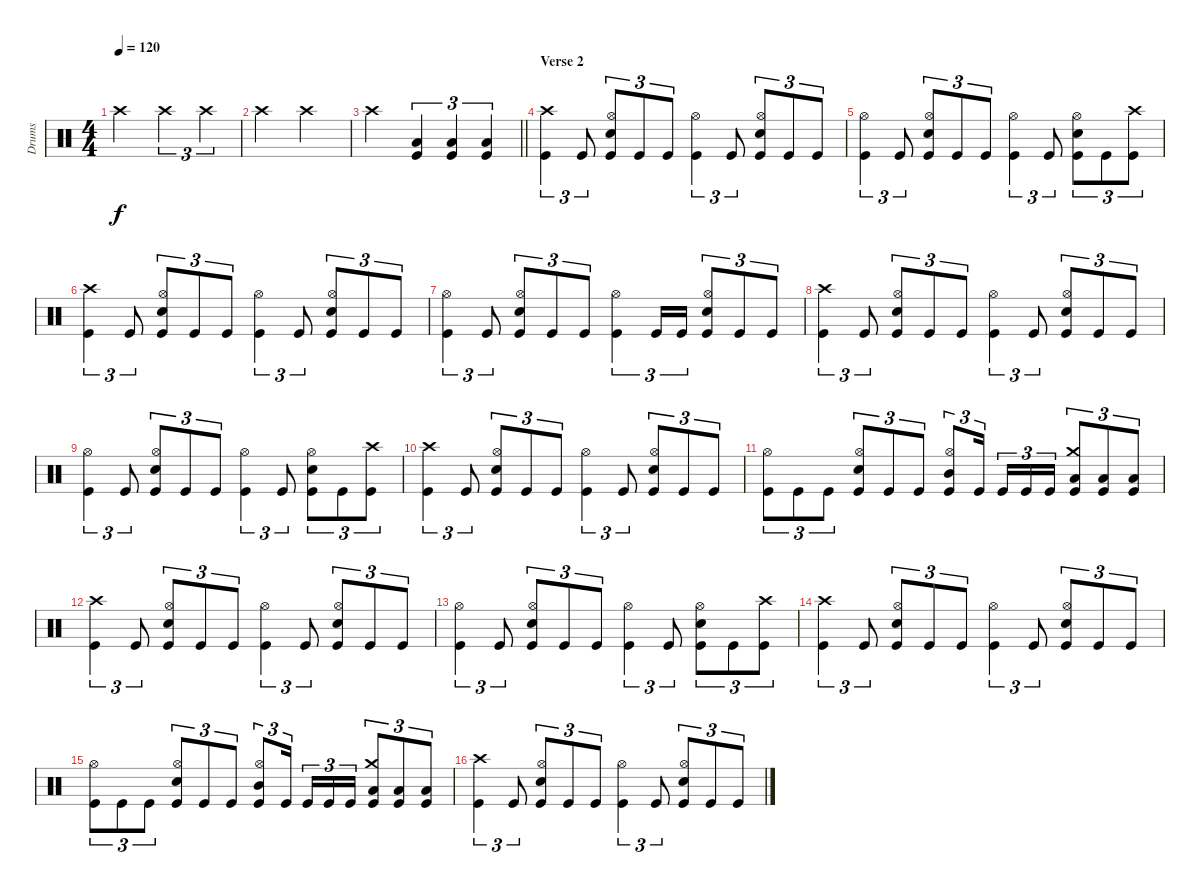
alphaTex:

\track ("Drums" "Drums") {instrument percussion}
\staff {score}
\articulation defaults
\ts (4 4)
\tempo 120
\clef neutral
\ks c "Crash high (hit)".2{dy f} "Crash high (hit)".2{tu (3 2)} "Crash high (hit)".4{tu (3 2)}
|
"Crash high (hit)".2 "Crash high (hit)".2 |
\barLineRight lightlight "Crash high (hit)".2
("Low Floor Tom (hit)" "Kick (hit)").4{tu (3 2)} ("Low Floor Tom (hit)" "Kick (hit)").4{tu (3 2)} ("Low Floor Tom (hit)" "Kick (hit)").4{tu (3 2)} |
\section ("" "Verse 2")
("Crash high (hit)" "Kick (hit)").4{tu (3 2)} "Kick (hit)".8{tu (3 2)} ("Hi-Hat (open)" "Snare (hit) 2" "Kick (hit)").8{tu (3 2)} "Kick (hit)".8{tu (3 2)} "Kick (hit)".8{tu (3 2)} ("Hi-Hat (open)" "Kick (hit)").4{tu (3 2)} "Kick (hit)".8{tu (3 2)} ("Hi-Hat (open)" "Snare (hit) 2" "Kick (hit)").8{tu (3 2)} "Kick (hit)".8{tu (3 2)} "Kick (hit)".8{tu (3 2)} |
("Hi-Hat (open)" "Kick (hit)").4{tu (3 2)} "Kick (hit)".8{tu (3 2)} ("Hi-Hat (open)" "Snare (hit) 2" "Kick (hit)").8{tu (3 2)} "Kick (hit)".8{tu (3 2)} "Kick (hit)".8{tu (3 2)} ("Hi-Hat (open)" "Kick (hit)").4{tu (3 2)} "Kick (hit)".8{tu (3 2)} ("Hi-Hat (open)" "Snare (hit) 2" "Kick (hit)").8{tu (3 2)} "Kick (hit)".8{tu (3 2)} ("Crash high (hit)" "Kick (hit)").8{tu (3 2)} |
("Crash high (hit)" "Kick (hit)").4{tu (3 2)} "Kick (hit)".8{tu (3 2)} ("Hi-Hat (open)" "Snare (hit) 2" "Kick (hit)").8{tu (3 2)} "Kick (hit)".8{tu (3 2)} "Kick (hit)".8{tu (3 2)} ("Hi-Hat (open)" "Kick (hit)").4{tu (3 2)} "Kick (hit)".8{tu (3 2)} ("Hi-Hat (open)" "Snare (hit) 2" "Kick (hit)").8{tu (3 2)} "Kick (hit)".8{tu (3 2)} "Kick (hit)".8{tu (3 2)} |
("Hi-Hat (open)" "Kick (hit)").4{tu (3 2)} "Kick (hit)".8{tu (3 2)} ("Hi-Hat (open)" "Snare (hit) 2" "Kick (hit)").8{tu (3 2)} "Kick (hit)".8{tu (3 2)} "Kick (hit)".8{tu (3 2)} ("Hi-Hat (open)" "Kick (hit)").4{tu (3 2)} "Kick (hit)".16{tu (3 2)} "Kick (hit)".16{tu (3 2)} ("Hi-Hat (open)" "Snare (hit) 2" "Kick (hit)").8{tu (3 2)} "Kick (hit)".8{tu (3 2)} "Kick (hit)".8{tu (3 2)} |
("Crash high (hit)" "Kick (hit)").4{tu (3 2)} "Kick (hit)".8{tu (3 2)} ("Hi-Hat (open)" "Snare (hit) 2" "Kick (hit)").8{tu (3 2)} "Kick (hit)".8{tu (3 2)} "Kick (hit)".8{tu (3 2)} ("Hi-Hat (open)" "Kick (hit)").4{tu (3 2)} "Kick (hit)".8{tu (3 2)} ("Hi-Hat (open)" "Snare (hit) 2" "Kick (hit)").8{tu (3 2)} "Kick (hit)".8{tu (3 2)} "Kick (hit)".8{tu (3 2)} |
("Hi-Hat (open)" "Kick (hit)").4{tu (3 2)} "Kick (hit)".8{tu (3 2)} ("Hi-Hat (open)" "Snare (hit) 2" "Kick (hit)").8{tu (3 2)} "Kick (hit)".8{tu (3 2)} "Kick (hit)".8{tu (3 2)} ("Hi-Hat (open)" "Kick (hit)").4{tu (3 2)} "Kick (hit)".8{tu (3 2)} ("Hi-Hat (open)" "Snare (hit) 2" "Kick (hit)").8{tu (3 2)} "Kick (hit)".8{tu (3 2)} ("Crash high (hit)" "Kick (hit)").8{tu (3 2)} |
("Crash high (hit)" "Kick (hit)").4{tu (3 2)} "Kick (hit)".8{tu (3 2)} ("Hi-Hat (open)" "Snare (hit) 2" "Kick (hit)").8{tu (3 2)} "Kick (hit)".8{tu (3 2)} "Kick (hit)".8{tu (3 2)} ("Hi-Hat (open)" "Kick (hit)").4{tu (3 2)} "Kick (hit)".8{tu (3 2)} ("Hi-Hat (open)" "Snare (hit) 2" "Kick (hit)").8{tu (3 2)} "Kick (hit)".8{tu (3 2)} "Kick (hit)".8{tu (3 2)} |
("Hi-Hat (open)" "Kick (hit)").8{tu (3 2)} "Kick (hit)".8{tu (3 2)} "Kick (hit)".8{tu (3 2)} ("Hi-Hat (open)" "Snare (hit) 2" "Kick (hit)").8{tu (3 2)} "Kick (hit)".8{tu (3 2)} "Kick (hit)".8{tu (3 2)} ("Hi-Hat (open)" "Mid Tom (hit)" "Kick (hit)").8{tu (3 2)} "Kick (hit)".16{tu (3 2)} "Kick (hit)".16{tu (3 2)} "Kick (hit)".16{tu (3 2)} "Kick (hit)".16{tu (3 2)} ("Crash medium (hit)" "Low Tom (hit)" "Kick (hit)").8{tu (3 2)} ("Low Tom (hit)" "Kick (hit)").8{tu (3 2)} ("Low Tom (hit)" "Kick (hit)").8{tu (3 2)} |
("Crash high (hit)" "Kick (hit)").4{tu (3 2)} "Kick (hit)".8{tu (3 2)} ("Hi-Hat (open)" "Snare (hit) 2" "Kick (hit)").8{tu (3 2)} "Kick (hit)".8{tu (3 2)} "Kick (hit)".8{tu (3 2)} ("Hi-Hat (open)" "Kick (hit)").4{tu (3 2)} "Kick (hit)".8{tu (3 2)} ("Hi-Hat (open)" "Snare (hit) 2" "Kick (hit)").8{tu (3 2)} "Kick (hit)".8{tu (3 2)} "Kick (hit)".8{tu (3 2)} |
("Hi-Hat (open)" "Kick (hit)").4{tu (3 2)} "Kick (hit)".8{tu (3 2)} ("Hi-Hat (open)" "Snare (hit) 2" "Kick (hit)").8{tu (3 2)} "Kick (hit)".8{tu (3 2)} "Kick (hit)".8{tu (3 2)} ("Hi-Hat (open)" "Kick (hit)").4{tu (3 2)} "Kick (hit)".8{tu (3 2)} ("Hi-Hat (open)" "Snare (hit) 2" "Kick (hit)").8{tu (3 2)} "Kick (hit)".8{tu (3 2)} ("Crash high (hit)" "Kick (hit)").8{tu (3 2)} |
("Crash high (hit)" "Kick (hit)").4{tu (3 2)} "Kick (hit)".8{tu (3 2)} ("Hi-Hat (open)" "Snare (hit) 2" "Kick (hit)").8{tu (3 2)} "Kick (hit)".8{tu (3 2)} "Kick (hit)".8{tu (3 2)} ("Hi-Hat (open)" "Kick (hit)").4{tu (3 2)} "Kick (hit)".8{tu (3 2)} ("Hi-Hat (open)" "Snare (hit) 2" "Kick (hit)").8{tu (3 2)} "Kick (hit)".8{tu (3 2)} "Kick (hit)".8{tu (3 2)} |
("Hi-Hat (open)" "Kick (hit)").8{tu (3 2)} "Kick (hit)".8{tu (3 2)} "Kick (hit)".8{tu (3 2)} ("Hi-Hat (open)" "Snare (hit) 2" "Kick (hit)").8{tu (3 2)} "Kick (hit)".8{tu (3 2)} "Kick (hit)".8{tu (3 2)} ("Hi-Hat (open)" "Mid Tom (hit)" "Kick (hit)").8{tu (3 2)} "Kick (hit)".16{tu (3 2)} "Kick (hit)".16{tu (3 2)} "Kick (hit)".16{tu (3 2)} "Kick (hit)".16{tu (3 2)} ("Crash medium (hit)" "Low Tom (hit)" "Kick (hit)").8{tu (3 2)} ("Low Tom (hit)" "Kick (hit)").8{tu (3 2)} ("Low Tom (hit)" "Kick (hit)").8{tu (3 2)} |
("Crash high (hit)" "Kick (hit)").4{tu (3 2)} "Kick (hit)".8{tu (3 2)} ("Hi-Hat (open)" "Snare (hit) 2" "Kick (hit)").8{tu (3 2)} "Kick (hit)".8{tu (3 2)} "Kick (hit)".8{tu (3 2)} ("Hi-Hat (open)" "Kick (hit)").4{tu (3 2)} "Kick (hit)".8{tu (3 2)} ("Hi-Hat (open)" "Snare (hit) 2" "Kick (hit)").8{tu (3 2)} "Kick (hit)".8{tu (3 2)} "Kick (hit)".8{tu (3 2)}
